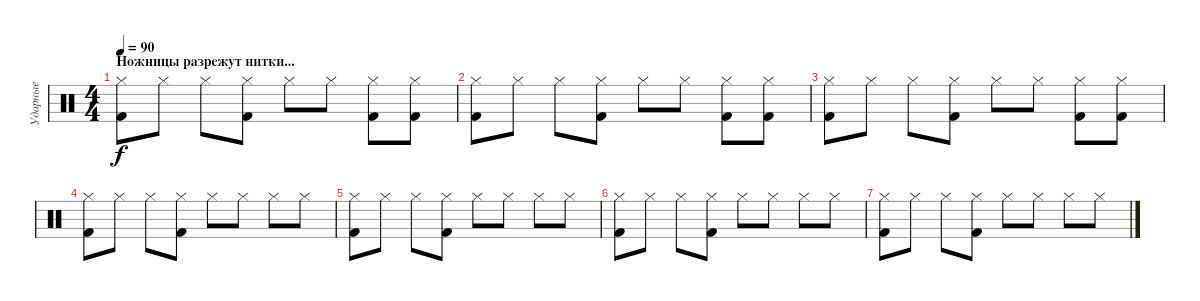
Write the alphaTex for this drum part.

\track ("Ударные" "Ударные") {instrument percussion}
\staff {score}
\articulation defaults
\ts (4 4)
\section ("" "Ножницы разрежут нитки...")
\tempo 90
\clef neutral
\ks c
("Hi-Hat (closed)" "Kick (hit) 2").8{dy f} "Hi-Hat (closed)".8 "Hi-Hat (closed)".8 ("Hi-Hat (closed)" "Kick (hit) 2").8 "Hi-Hat (closed)".8 "Hi-Hat (closed)".8 ("Hi-Hat (closed)" "Kick (hit) 2").8 ("Hi-Hat (closed)" "Kick (hit) 2").8 |
("Hi-Hat (closed)" "Kick (hit) 2").8 "Hi-Hat (closed)".8 "Hi-Hat (closed)".8 ("Hi-Hat (closed)" "Kick (hit) 2").8 "Hi-Hat (closed)".8 "Hi-Hat (closed)".8 ("Hi-Hat (closed)" "Kick (hit) 2").8 ("Hi-Hat (closed)" "Kick (hit) 2").8 |
("Hi-Hat (closed)" "Kick (hit) 2").8 "Hi-Hat (closed)".8 "Hi-Hat (closed)".8 ("Hi-Hat (closed)" "Kick (hit) 2").8 "Hi-Hat (closed)".8 "Hi-Hat (closed)".8 ("Hi-Hat (closed)" "Kick (hit) 2").8 ("Hi-Hat (closed)" "Kick (hit) 2").8 |
("Hi-Hat (closed)" "Kick (hit) 2").8 "Hi-Hat (closed)".8 "Hi-Hat (closed)".8 ("Hi-Hat (closed)" "Kick (hit) 2").8 "Hi-Hat (closed)".8 "Hi-Hat (closed)".8 "Hi-Hat (closed)".8 "Hi-Hat (closed)".8 |
("Hi-Hat (closed)" "Kick (hit) 2").8 "Hi-Hat (closed)".8 "Hi-Hat (closed)".8 ("Hi-Hat (closed)" "Kick (hit) 2").8 "Hi-Hat (closed)".8 "Hi-Hat (closed)".8 "Hi-Hat (closed)".8 "Hi-Hat (closed)".8 |
("Hi-Hat (closed)" "Kick (hit) 2").8 "Hi-Hat (closed)".8 "Hi-Hat (closed)".8 ("Hi-Hat (closed)" "Kick (hit) 2").8 "Hi-Hat (closed)".8 "Hi-Hat (closed)".8 "Hi-Hat (closed)".8 "Hi-Hat (closed)".8 |
("Hi-Hat (closed)" "Kick (hit) 2").8 "Hi-Hat (closed)".8 "Hi-Hat (closed)".8 ("Hi-Hat (closed)" "Kick (hit) 2").8 "Hi-Hat (closed)".8 "Hi-Hat (closed)".8 "Hi-Hat (closed)".8 "Hi-Hat (closed)".8
